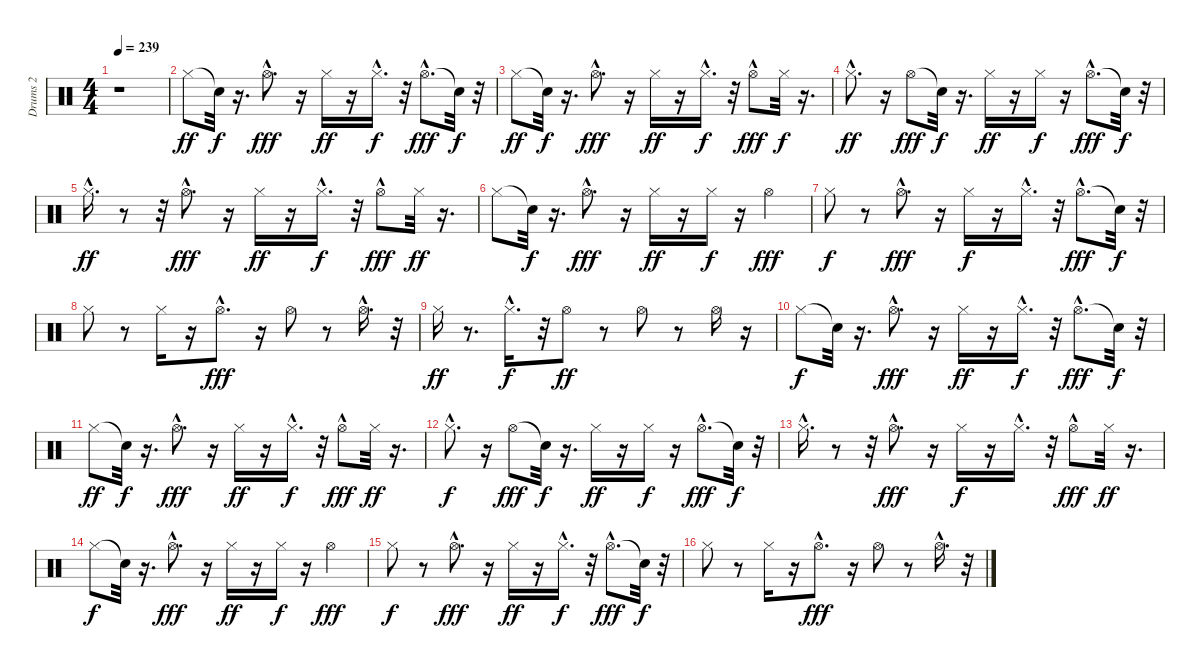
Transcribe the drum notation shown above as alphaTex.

\track ("Drums 2" "Drums 2") {instrument percussion}
\staff {score}
\articulation defaults
\ts (4 4)
\tempo 239
\clef neutral
\ks c
r.1{dy ff} |
"Hi-Hat (closed)".8 "Snare (hit)"{t}.32{dy f} r.16{d} "Hi-Hat (open)"{hac}.8{d dy fff} r.16 "Hi-Hat (closed)".16{dy ff} r.16 "Hi-Hat (closed)"{hac}.16{d dy f} r.32 "Hi-Hat (open)"{hac}.8{d dy fff} "Snare (hit)"{t}.32{dy f} r.32 |
"Hi-Hat (closed)".8{dy ff} "Snare (hit)"{t}.32{dy f} r.16{d} "Hi-Hat (open)"{hac}.8{d dy fff} r.16 "Hi-Hat (closed)".16{dy ff} r.16 "Hi-Hat (closed)"{hac}.16{d dy f} r.32 "Hi-Hat (open)"{hac}.8{dy fff} "Hi-Hat (closed)".32{dy f} r.16{d} |
"Hi-Hat (closed)"{hac}.8{d dy ff} r.16 "Hi-Hat (open)".8{dy fff} "Snare (hit)"{t}.32{dy f} r.16{d} "Hi-Hat (closed)".16{dy ff} r.16 "Hi-Hat (closed)".16{dy f} r.16 "Hi-Hat (open)"{hac}.8{d dy fff} "Snare (hit)"{t}.32{dy f} r.32 |
"Hi-Hat (closed)"{hac}.16{d dy ff} r.8 r.32 "Hi-Hat (open)"{hac}.8{d dy fff} r.16 "Hi-Hat (closed)".16{dy ff} r.16 "Hi-Hat (closed)"{hac}.16{d dy f} r.32 "Hi-Hat (open)"{hac}.8{dy fff} "Hi-Hat (closed)".32{dy ff} r.16{d} |
"Hi-Hat (closed)".8 "Snare (hit)"{t}.32{dy f} r.16{d} "Hi-Hat (open)"{hac}.8{d dy fff} r.16 "Hi-Hat (closed)".16{dy ff} r.16 "Hi-Hat (closed)".16{dy f} r.16 "Hi-Hat (open)".4{dy fff} |
"Hi-Hat (closed)".8{dy f} r.8 "Hi-Hat (open)"{hac}.8{d dy fff} r.16 "Hi-Hat (closed)".16{dy f} r.16 "Hi-Hat (closed)"{hac}.16{d} r.32 "Hi-Hat (open)"{hac}.8{d dy fff} "Snare (hit)"{t}.32{dy f} r.32 |
"Hi-Hat (closed)".8 r.8 "Hi-Hat (closed)".16 r.16 "Hi-Hat (open)"{hac}.8{d dy fff} r.16 "Hi-Hat (open)".8 r.8 "Hi-Hat (open)"{hac}.16{d} r.32 |
"Hi-Hat (closed)".16{dy ff} r.8{d} "Hi-Hat (closed)"{hac}.16{d dy f} r.32 "Hi-Hat (open)".8{dy ff} r.8 "Hi-Hat (open)".8 r.8 "Hi-Hat (open)".16 r.16 |
"Hi-Hat (closed)".8{dy f} "Snare (hit)"{t}.32 r.16{d} "Hi-Hat (open)"{hac}.8{d dy fff} r.16 "Hi-Hat (closed)".16{dy ff} r.16 "Hi-Hat (closed)"{hac}.16{d dy f} r.32 "Hi-Hat (open)"{hac}.8{d dy fff} "Snare (hit)"{t}.32{dy f} r.32 |
"Hi-Hat (closed)".8{dy ff} "Snare (hit)"{t}.32{dy f} r.16{d} "Hi-Hat (open)"{hac}.8{d dy fff} r.16 "Hi-Hat (closed)".16{dy ff} r.16 "Hi-Hat (closed)"{hac}.16{d dy f} r.32 "Hi-Hat (open)"{hac}.8{dy fff} "Hi-Hat (closed)".32{dy ff} r.16{d} |
"Hi-Hat (closed)"{hac}.8{d dy f} r.16 "Hi-Hat (open)".8{dy fff} "Snare (hit)"{t}.32{dy f} r.16{d} "Hi-Hat (closed)".16{dy ff} r.16 "Hi-Hat (closed)".16{dy f} r.16 "Hi-Hat (open)"{hac}.8{d dy fff} "Snare (hit)"{t}.32{dy f} r.32 |
"Hi-Hat (closed)"{hac}.16{d} r.8 r.32 "Hi-Hat (open)"{hac}.8{d dy fff} r.16 "Hi-Hat (closed)".16{dy f} r.16 "Hi-Hat (closed)"{hac}.16{d} r.32 "Hi-Hat (open)"{hac}.8{dy fff} "Hi-Hat (closed)".32{dy ff} r.16{d} |
"Hi-Hat (closed)".8{dy f} "Snare (hit)"{t}.32 r.16{d} "Hi-Hat (open)"{hac}.8{d dy fff} r.16 "Hi-Hat (closed)".16{dy ff} r.16 "Hi-Hat (closed)".16{dy f} r.16 "Hi-Hat (open)".4{dy fff} |
"Hi-Hat (closed)".8{dy f} r.8 "Hi-Hat (open)"{hac}.8{d dy fff} r.16 "Hi-Hat (closed)".16{dy ff} r.16 "Hi-Hat (closed)"{hac}.16{d dy f} r.32 "Hi-Hat (open)"{hac}.8{d dy fff} "Snare (hit)"{t}.32{dy f} r.32 |
"Hi-Hat (closed)".8 r.8 "Hi-Hat (closed)".16 r.16 "Hi-Hat (open)"{hac}.8{d dy fff} r.16 "Hi-Hat (open)".8 r.8 "Hi-Hat (open)"{hac}.16{d} r.32
